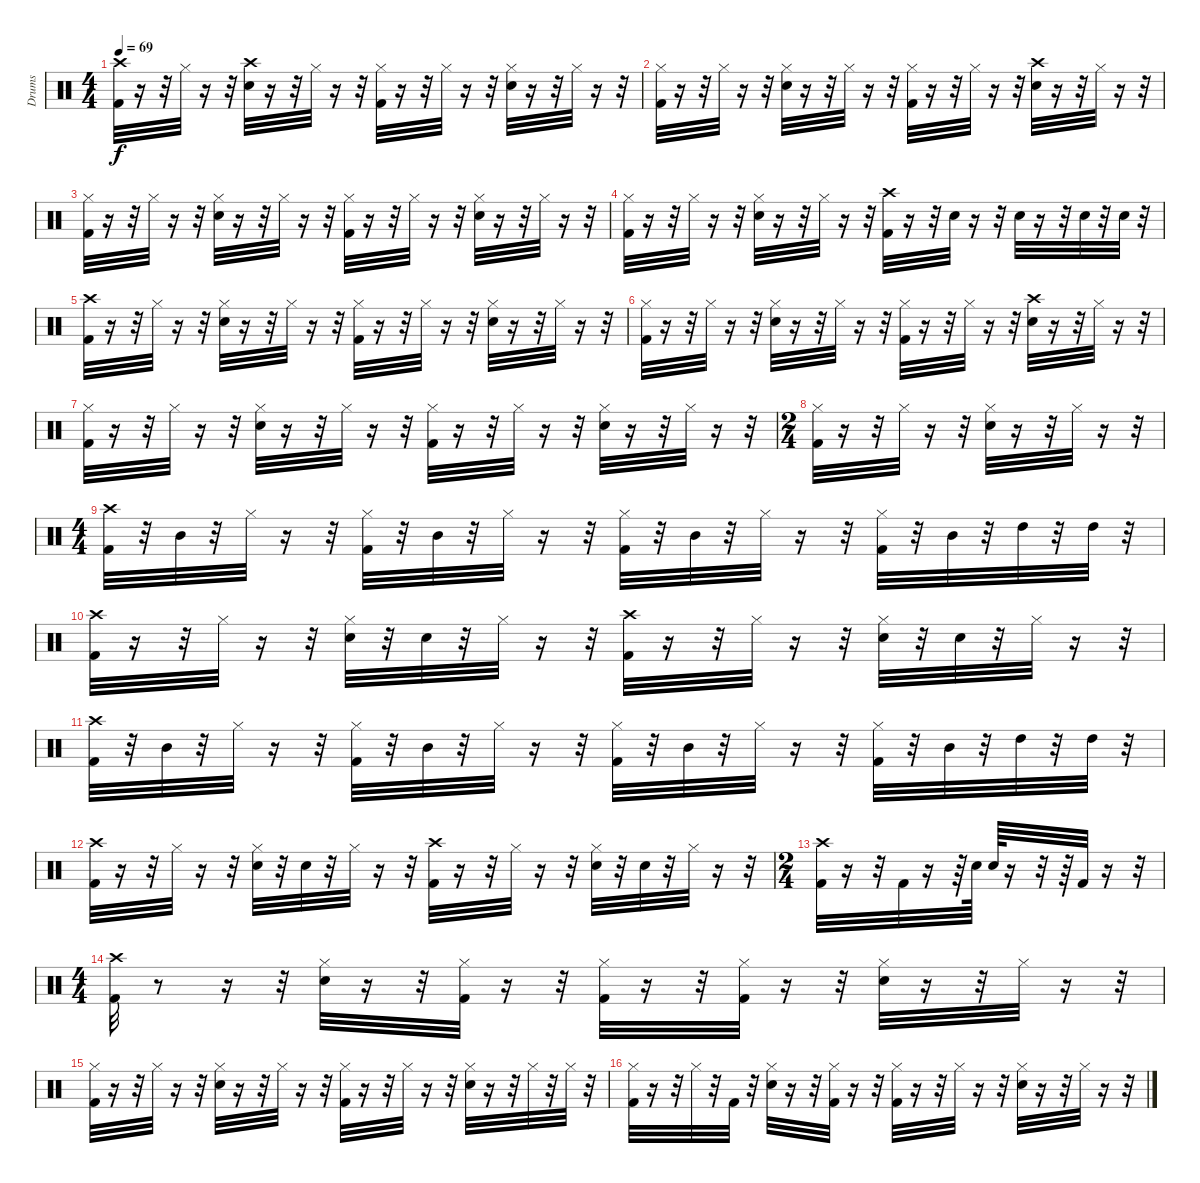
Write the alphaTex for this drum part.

\track ("Drums" "Drums") {instrument percussion}
\staff {score}
\articulation defaults
\ts (4 4)
\tempo 69
\clef neutral
\ks c
("Kick (hit) 2" "Crash high (hit)").32{dy f} r.16 r.32 "Hi-Hat (closed)".32 r.16 r.32 ("Crash high (hit)" "Snare (hit) 2").32 r.16 r.32 "Hi-Hat (closed)".32 r.16 r.32 ("Hi-Hat (closed)" "Kick (hit) 2").32 r.16 r.32 "Hi-Hat (closed)".32 r.16 r.32 ("Snare (hit) 2" "Hi-Hat (closed)").32 r.16 r.32 "Hi-Hat (closed)".32 r.16 r.32 |
("Kick (hit) 2" "Hi-Hat (closed)").32 r.16 r.32 "Hi-Hat (closed)".32 r.16 r.32 ("Snare (hit) 2" "Hi-Hat (closed)").32 r.16 r.32 "Hi-Hat (closed)".32 r.16 r.32 ("Hi-Hat (closed)" "Kick (hit) 2").32 r.16 r.32 "Hi-Hat (closed)".32 r.16 r.32 ("Crash high (hit)" "Snare (hit) 2").32 r.16 r.32 "Hi-Hat (closed)".32 r.16 r.32 |
("Hi-Hat (closed)" "Kick (hit) 2").32 r.16 r.32 "Hi-Hat (closed)".32 r.16 r.32 ("Snare (hit) 2" "Hi-Hat (closed)").32 r.16 r.32 "Hi-Hat (closed)".32 r.16 r.32 ("Hi-Hat (closed)" "Kick (hit) 2").32 r.16 r.32 "Hi-Hat (closed)".32 r.16 r.32 ("Snare (hit) 2" "Hi-Hat (closed)").32 r.16 r.32 "Hi-Hat (closed)".32 r.16 r.32 |
("Kick (hit) 2" "Hi-Hat (closed)").32 r.16 r.32 "Hi-Hat (closed)".32 r.16 r.32 ("Snare (hit) 2" "Hi-Hat (closed)").32 r.16 r.32 "Hi-Hat (closed)".32 r.16 r.32 ("Crash high (hit)" "Kick (hit) 2").32 r.16 r.32 "Snare (hit) 2".32 r.16 r.32 "Snare (hit) 2".32 r.16 r.32 "Snare (hit) 2".32 r.32 "Snare (hit) 2".32 r.32 |
("Kick (hit) 2" "Crash high (hit)").32 r.16 r.32 "Hi-Hat (closed)".32 r.16 r.32 ("Snare (hit) 2" "Hi-Hat (closed)").32 r.16 r.32 "Hi-Hat (closed)".32 r.16 r.32 ("Hi-Hat (closed)" "Kick (hit) 2").32 r.16 r.32 "Hi-Hat (closed)".32 r.16 r.32 ("Snare (hit) 2" "Hi-Hat (closed)").32 r.16 r.32 "Hi-Hat (closed)".32 r.16 r.32 |
("Kick (hit) 2" "Hi-Hat (closed)").32 r.16 r.32 "Hi-Hat (closed)".32 r.16 r.32 ("Snare (hit) 2" "Hi-Hat (closed)").32 r.16 r.32 "Hi-Hat (closed)".32 r.16 r.32 ("Hi-Hat (closed)" "Kick (hit) 2").32 r.16 r.32 "Hi-Hat (closed)".32 r.16 r.32 ("Crash high (hit)" "Snare (hit) 2").32 r.16 r.32 "Hi-Hat (closed)".32 r.16 r.32 |
("Kick (hit) 2" "Hi-Hat (closed)").32 r.16 r.32 "Hi-Hat (closed)".32 r.16 r.32 ("Snare (hit) 2" "Hi-Hat (closed)").32 r.16 r.32 "Hi-Hat (closed)".32 r.16 r.32 ("Kick (hit) 2" "Hi-Hat (closed)").32 r.16 r.32 "Hi-Hat (closed)".32 r.16 r.32 ("Snare (hit) 2" "Hi-Hat (closed)").32 r.16 r.32 "Hi-Hat (closed)".32 r.16 r.32 |
\ts (2 4)
("Kick (hit) 2" "Hi-Hat (closed)").32 r.16 r.32 "Hi-Hat (closed)".32 r.16 r.32 ("Snare (hit) 2" "Hi-Hat (closed)").32 r.16 r.32 "Hi-Hat (closed)".32 r.16 r.32 |
\ts (4 4)
("Kick (hit) 2" "Crash high (hit)").32 r.32 "Mid Tom (hit)".32 r.32 "Hi-Hat (closed)".32 r.16 r.32 ("Hi-Hat (closed)" "Kick (hit) 2").32 r.32 "Mid Tom (hit)".32 r.32 "Hi-Hat (closed)".32 r.16 r.32 ("Hi-Hat (closed)" "Kick (hit) 2").32 r.32 "Mid Tom (hit)".32 r.32 "Hi-Hat (closed)".32 r.16 r.32 ("Hi-Hat (closed)" "Kick (hit) 2").32 r.32 "Mid Tom (hit)".32 r.32 "High Tom (hit)".32 r.32 "High Tom (hit)".32 r.32 |
("Kick (hit) 2" "Crash high (hit)").32 r.16 r.32 "Hi-Hat (closed)".32 r.16 r.32 ("Snare (hit) 2" "Hi-Hat (closed)").32 r.32 "Snare (hit) 2".32 r.32 "Hi-Hat (closed)".32 r.16 r.32 ("Crash high (hit)" "Kick (hit) 2").32 r.16 r.32 "Hi-Hat (closed)".32 r.16 r.32 ("Snare (hit) 2" "Hi-Hat (closed)").32 r.32 "Snare (hit) 2".32 r.32 "Hi-Hat (closed)".32 r.16 r.32 |
("Kick (hit) 2" "Crash high (hit)").32 r.32 "Mid Tom (hit)".32 r.32 "Hi-Hat (closed)".32 r.16 r.32 ("Hi-Hat (closed)" "Kick (hit) 2").32 r.32 "Mid Tom (hit)".32 r.32 "Hi-Hat (closed)".32 r.16 r.32 ("Hi-Hat (closed)" "Kick (hit) 2").32 r.32 "Mid Tom (hit)".32 r.32 "Hi-Hat (closed)".32 r.16 r.32 ("Hi-Hat (closed)" "Kick (hit) 2").32 r.32 "Mid Tom (hit)".32 r.32 "High Tom (hit)".32 r.32 "High Tom (hit)".32 r.32 |
("Kick (hit) 2" "Crash high (hit)").32 r.16 r.32 "Hi-Hat (closed)".32 r.16 r.32 ("Snare (hit) 2" "Hi-Hat (closed)").32 r.32 "Snare (hit) 2".32 r.32 "Hi-Hat (closed)".32 r.16 r.32 ("Crash high (hit)" "Kick (hit) 2").32 r.16 r.32 "Hi-Hat (closed)".32 r.16 r.32 ("Snare (hit) 2" "Hi-Hat (closed)").32 r.32 "Snare (hit) 2".32 r.32 "Hi-Hat (closed)".32 r.16 r.32 |
\ts (2 4)
("Kick (hit) 2" "Crash high (hit)").32 r.16 r.32 "Kick (hit) 2".32 r.16 r.64 "Snare (hit) 2".64 "Snare (hit) 2".64 r.16 r.32 r.64 "Kick (hit) 2".32 r.16 r.32 |
\ts (4 4)
("Kick (hit) 2" "Crash high (hit)").32 r.8 r.16 r.32 ("Hi-Hat (closed)" "Snare (hit) 2").32 r.16 r.32 ("Hi-Hat (closed)" "Kick (hit) 2").32 r.16 r.32 ("Hi-Hat (closed)" "Kick (hit) 2").32 r.16 r.32 ("Hi-Hat (closed)" "Kick (hit) 2").32 r.16 r.32 ("Hi-Hat (closed)" "Snare (hit) 2").32 r.16 r.32 "Hi-Hat (closed)".32 r.16 r.32 |
("Hi-Hat (closed)" "Kick (hit) 2").32 r.16 r.32 "Hi-Hat (closed)".32 r.16 r.32 ("Snare (hit) 2" "Hi-Hat (closed)").32 r.16 r.32 "Hi-Hat (closed)".32 r.16 r.32 ("Hi-Hat (closed)" "Kick (hit) 2").32 r.16 r.32 "Hi-Hat (closed)".32 r.16 r.32 ("Hi-Hat (closed)" "Snare (hit) 2").32 r.16 r.32 "Hi-Hat (closed)".32 r.32 "Hi-Hat (closed)".32 r.32 |
("Hi-Hat (closed)" "Kick (hit) 2").32 r.16 r.32 "Hi-Hat (closed)".32 r.32 "Kick (hit) 2".32 r.32 ("Snare (hit) 2" "Hi-Hat (closed)").32 r.16 r.32 ("Kick (hit) 2" "Hi-Hat (closed)").32 r.16 r.32 ("Hi-Hat (closed)" "Kick (hit) 2").32 r.16 r.32 "Hi-Hat (closed)".32 r.16 r.32 ("Snare (hit) 2" "Hi-Hat (closed)").32 r.16 r.32 "Hi-Hat (closed)".32 r.16 r.32
